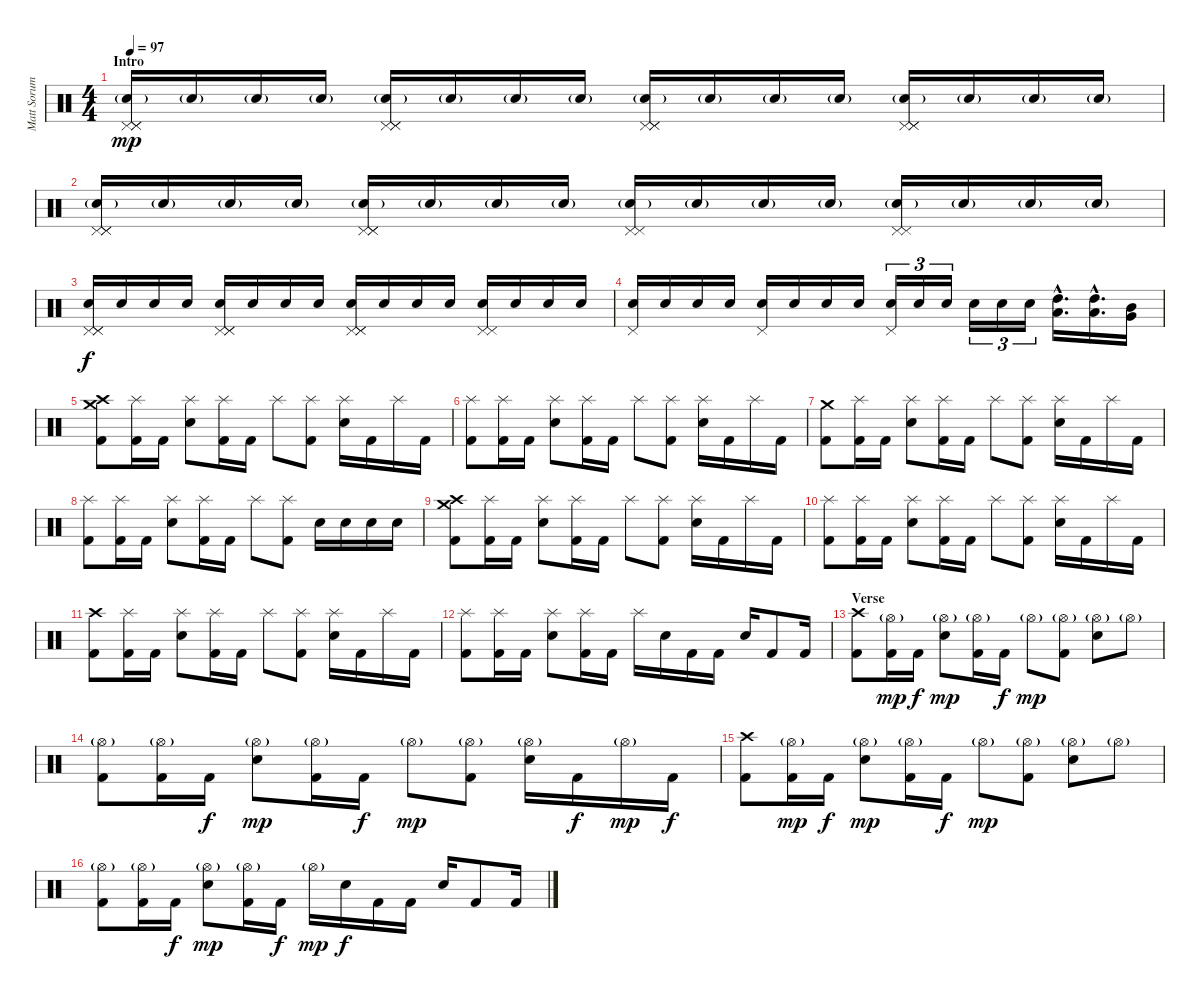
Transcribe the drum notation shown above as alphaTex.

\track ("Matt Sorum" "Matt Sorum") {instrument percussion}
\staff {score}
\articulation defaults
\ts (4 4)
\section ("" "Intro")
\tempo 97
\clef neutral
\ks c
("Pedal Hi-Hat (hit)" "Pedal Hi-Hat (hit)" "Pedal Hi-Hat (hit)" "Electric Snare (hit)"{g}).16{dy mp volume 10} "Electric Snare (hit)"{g}.16 "Electric Snare (hit)"{g}.16 "Electric Snare (hit)"{g}.16 ("Pedal Hi-Hat (hit)" "Pedal Hi-Hat (hit)" "Pedal Hi-Hat (hit)" "Electric Snare (hit)"{g}).16 "Electric Snare (hit)"{g}.16 "Electric Snare (hit)"{g}.16 "Electric Snare (hit)"{g}.16 ("Pedal Hi-Hat (hit)" "Pedal Hi-Hat (hit)" "Pedal Hi-Hat (hit)" "Electric Snare (hit)"{g}).16 "Electric Snare (hit)"{g}.16 "Electric Snare (hit)"{g}.16 "Electric Snare (hit)"{g}.16 ("Pedal Hi-Hat (hit)" "Pedal Hi-Hat (hit)" "Pedal Hi-Hat (hit)" "Electric Snare (hit)"{g}).16 "Electric Snare (hit)"{g}.16 "Electric Snare (hit)"{g}.16 "Electric Snare (hit)"{g}.16 |
("Pedal Hi-Hat (hit)" "Pedal Hi-Hat (hit)" "Pedal Hi-Hat (hit)" "Electric Snare (hit)"{g}).16{volume 13} "Electric Snare (hit)"{g}.16 "Electric Snare (hit)"{g}.16 "Electric Snare (hit)"{g}.16 ("Pedal Hi-Hat (hit)" "Pedal Hi-Hat (hit)" "Pedal Hi-Hat (hit)" "Electric Snare (hit)"{g}).16 "Electric Snare (hit)"{g}.16 "Electric Snare (hit)"{g}.16 "Electric Snare (hit)"{g}.16 ("Pedal Hi-Hat (hit)" "Pedal Hi-Hat (hit)" "Electric Snare (hit)"{g}).16 "Electric Snare (hit)"{g}.16 "Electric Snare (hit)"{g}.16 "Electric Snare (hit)"{g}.16 ("Pedal Hi-Hat (hit)" "Pedal Hi-Hat (hit)" "Electric Snare (hit)"{g}).16 "Electric Snare (hit)"{g}.16 "Electric Snare (hit)"{g}.16 "Electric Snare (hit)"{g}.16 |
("Pedal Hi-Hat (hit)" "Pedal Hi-Hat (hit)" "Pedal Hi-Hat (hit)" "Electric Snare (hit)").16{dy f volume 10} "Electric Snare (hit)".16 "Electric Snare (hit)".16 "Electric Snare (hit)".16 ("Pedal Hi-Hat (hit)" "Pedal Hi-Hat (hit)" "Pedal Hi-Hat (hit)" "Electric Snare (hit)").16{volume 13} "Electric Snare (hit)".16 "Electric Snare (hit)".16 "Electric Snare (hit)".16 ("Pedal Hi-Hat (hit)" "Pedal Hi-Hat (hit)" "Pedal Hi-Hat (hit)" "Electric Snare (hit)").16 "Electric Snare (hit)".16 "Electric Snare (hit)".16 "Electric Snare (hit)".16 ("Pedal Hi-Hat (hit)" "Pedal Hi-Hat (hit)" "Electric Snare (hit)").16 "Electric Snare (hit)".16 "Electric Snare (hit)".16 "Electric Snare (hit)".16 |
("Pedal Hi-Hat (hit)" "Electric Snare (hit)").16 "Electric Snare (hit)".16 "Electric Snare (hit)".16 "Electric Snare (hit)".16 ("Pedal Hi-Hat (hit)" "Electric Snare (hit)").16 "Electric Snare (hit)".16 "Electric Snare (hit)".16 "Electric Snare (hit)".16 ("Pedal Hi-Hat (hit)" "Electric Snare (hit)").16{tu (3 2)} "Electric Snare (hit)".16{tu (3 2)} "Electric Snare (hit)".16{tu (3 2)} "Electric Snare (hit)".16{tu (3 2)} "Electric Snare (hit)".16{tu (3 2)} "Electric Snare (hit)".16{tu (3 2)} ("High Tom (hit)"{hac} "Low Tom (hit)"{hac}).16{d} ("High Tom (hit)"{hac} "Low Tom (hit)"{hac}).16{d} ("Mid Tom (hit)" "Very Low Tom (hit)").16 |
("Crash medium (hit)" "Crash high (hit)" "Kick (hit) 2").8 ("Splash (hit)" "Kick (hit) 2").16 "Kick (hit) 2".16 ("Splash (hit)" "Electric Snare (hit)").8 ("Splash (hit)" "Kick (hit) 2").16 "Kick (hit) 2".16 "Splash (hit)".8 ("Splash (hit)" "Kick (hit) 2").8 ("Splash (hit)" "Electric Snare (hit)").16 "Kick (hit) 2".16 "Splash (hit)".16 "Kick (hit) 2".16 |
("Splash (hit)" "Kick (hit) 2").8 ("Splash (hit)" "Kick (hit) 2").16 "Kick (hit) 2".16 ("Splash (hit)" "Electric Snare (hit)").8 ("Splash (hit)" "Kick (hit) 2").16 "Kick (hit) 2".16 "Splash (hit)".8 ("Splash (hit)" "Kick (hit) 2").8 ("Splash (hit)" "Electric Snare (hit)").16 "Kick (hit) 2".16 "Splash (hit)".16 "Kick (hit) 2".16 |
("Crash medium (hit)" "Kick (hit) 2").8 ("Splash (hit)" "Kick (hit) 2").16 "Kick (hit) 2".16 ("Splash (hit)" "Electric Snare (hit)").8 ("Splash (hit)" "Kick (hit) 2").16 "Kick (hit) 2".16 "Splash (hit)".8 ("Splash (hit)" "Kick (hit) 2").8 ("Splash (hit)" "Electric Snare (hit)").16 "Kick (hit) 2".16 "Splash (hit)".16 "Kick (hit) 2".16 |
("Splash (hit)" "Kick (hit) 2").8 ("Splash (hit)" "Kick (hit) 2").16 "Kick (hit) 2".16 ("Splash (hit)" "Electric Snare (hit)").8 ("Splash (hit)" "Kick (hit) 2").16 "Kick (hit) 2".16 "Splash (hit)".8 ("Splash (hit)" "Kick (hit) 2").8 "Electric Snare (hit)".16 "Electric Snare (hit)".16 "Electric Snare (hit)".16 "Electric Snare (hit)".16 |
("Crash medium (hit)" "Crash high (hit)" "Kick (hit) 2").8 ("Splash (hit)" "Kick (hit) 2").16 "Kick (hit) 2".16 ("Splash (hit)" "Electric Snare (hit)").8 ("Splash (hit)" "Kick (hit) 2").16 "Kick (hit) 2".16 "Splash (hit)".8 ("Splash (hit)" "Kick (hit) 2").8 ("Splash (hit)" "Electric Snare (hit)").16 "Kick (hit) 2".16 "Splash (hit)".16 "Kick (hit) 2".16 |
("Splash (hit)" "Kick (hit) 2").8 ("Splash (hit)" "Kick (hit) 2").16 "Kick (hit) 2".16 ("Splash (hit)" "Electric Snare (hit)").8 ("Splash (hit)" "Kick (hit) 2").16 "Kick (hit) 2".16 "Splash (hit)".8 ("Splash (hit)" "Kick (hit) 2").8 ("Splash (hit)" "Electric Snare (hit)").16 "Kick (hit) 2".16 "Splash (hit)".16 "Kick (hit) 2".16 |
("Crash high (hit)" "Kick (hit) 2").8 ("Splash (hit)" "Kick (hit) 2").16 "Kick (hit) 2".16 ("Splash (hit)" "Electric Snare (hit)").8 ("Splash (hit)" "Kick (hit) 2").16 "Kick (hit) 2".16 "Splash (hit)".8 ("Splash (hit)" "Kick (hit) 2").8 ("Splash (hit)" "Electric Snare (hit)").16 "Kick (hit) 2".16 "Splash (hit)".16 "Kick (hit) 2".16 |
("Splash (hit)" "Kick (hit) 2").8 ("Splash (hit)" "Kick (hit) 2").16 "Kick (hit) 2".16 ("Splash (hit)" "Electric Snare (hit)").8 ("Splash (hit)" "Kick (hit) 2").16 "Kick (hit) 2".16 "Splash (hit)".16 "Electric Snare (hit)".16 "Kick (hit) 2".16 "Kick (hit) 2".16 "Electric Snare (hit)".16 "Kick (hit) 2".8 "Kick (hit) 2".16 |
\section ("" "Verse")
("Crash high (hit)" "Kick (hit) 2").8 ("Hi-Hat (open)"{g} "Kick (hit) 2").16{dy mp} "Kick (hit) 2".16{dy f} ("Hi-Hat (open)"{g} "Electric Snare (hit)").8{dy mp} ("Hi-Hat (open)"{g} "Kick (hit) 2").16 "Kick (hit) 2".16{dy f} "Hi-Hat (open)"{g}.8{dy mp} ("Hi-Hat (open)"{g} "Kick (hit) 2").8 ("Hi-Hat (open)"{g} "Electric Snare (hit)").8 "Hi-Hat (open)"{g}.8 |
("Hi-Hat (open)"{g} "Kick (hit) 2").8 ("Hi-Hat (open)"{g} "Kick (hit) 2").16 "Kick (hit) 2".16{dy f} ("Hi-Hat (open)"{g} "Electric Snare (hit)").8{dy mp} ("Hi-Hat (open)"{g} "Kick (hit) 2").16 "Kick (hit) 2".16{dy f} "Hi-Hat (open)"{g}.8{dy mp} ("Hi-Hat (open)"{g} "Kick (hit) 2").8 ("Hi-Hat (open)"{g} "Electric Snare (hit)").16 "Kick (hit) 2".16{dy f} "Hi-Hat (open)"{g}.16{dy mp} "Kick (hit) 2".16{dy f} |
("Crash high (hit)" "Kick (hit) 2").8 ("Hi-Hat (open)"{g} "Kick (hit) 2").16{dy mp} "Kick (hit) 2".16{dy f} ("Hi-Hat (open)"{g} "Electric Snare (hit)").8{dy mp} ("Hi-Hat (open)"{g} "Kick (hit) 2").16 "Kick (hit) 2".16{dy f} "Hi-Hat (open)"{g}.8{dy mp} ("Hi-Hat (open)"{g} "Kick (hit) 2").8 ("Hi-Hat (open)"{g} "Electric Snare (hit)").8 "Hi-Hat (open)"{g}.8 |
("Hi-Hat (open)"{g} "Kick (hit) 2").8 ("Hi-Hat (open)"{g} "Kick (hit) 2").16 "Kick (hit) 2".16{dy f} ("Hi-Hat (open)"{g} "Electric Snare (hit)").8{dy mp} ("Hi-Hat (open)"{g} "Kick (hit) 2").16 "Kick (hit) 2".16{dy f} "Hi-Hat (open)"{g}.16{dy mp} "Electric Snare (hit)".16{dy f} "Kick (hit) 2".16 "Kick (hit) 2".16 "Electric Snare (hit)".16 "Kick (hit) 2".8 "Kick (hit) 2".16
